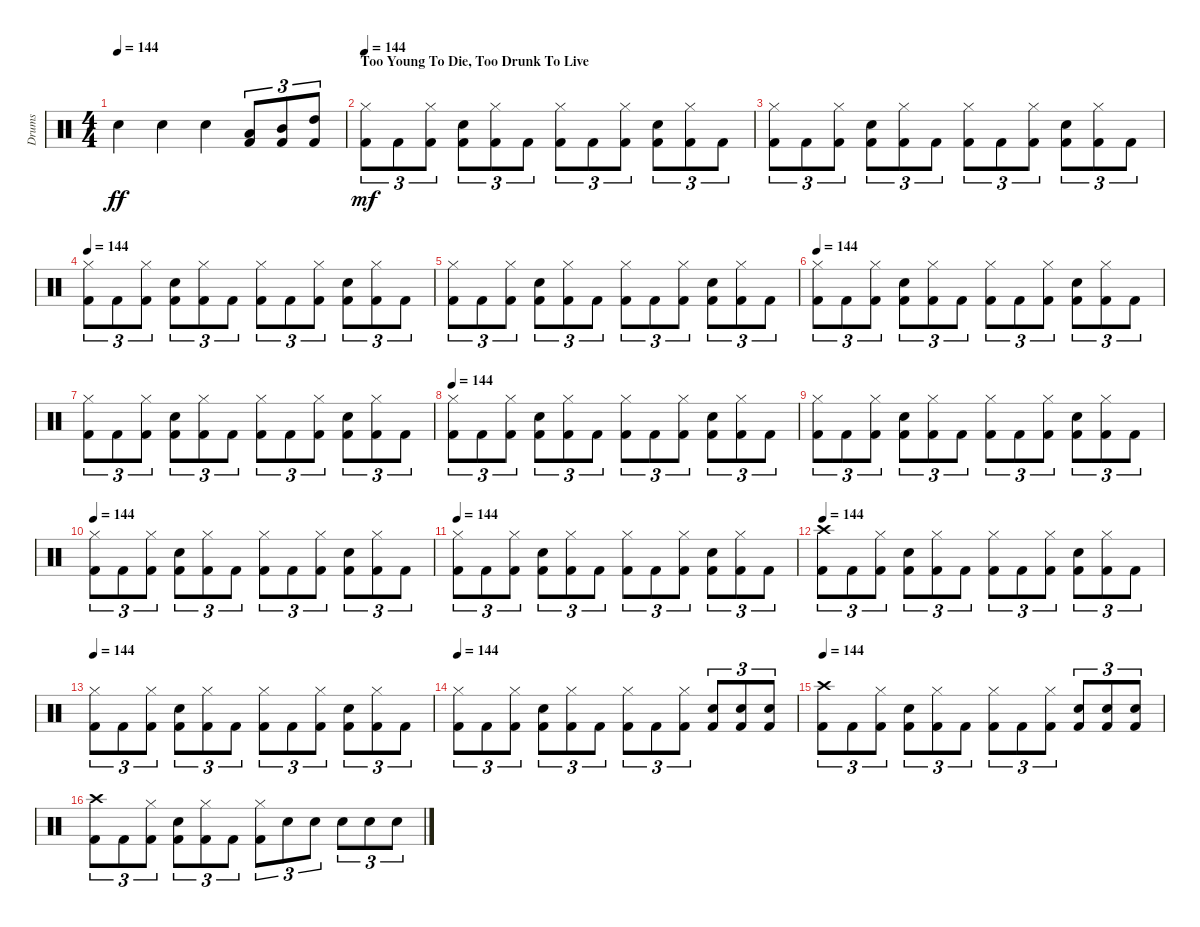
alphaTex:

\track ("Drums" "Drums") {instrument percussion}
\staff {score}
\articulation defaults
\ts (4 4)
\tempo 144
\clef neutral
\ks c "Electric Snare (hit)".4{dy ff} "Electric Snare (hit)".4 "Electric Snare (hit)".4
("Kick (hit) 2" "Low Floor Tom (hit)").8{tu (3 2)} ("Kick (hit) 2" "Mid Tom (hit)").8{tu (3 2)} ("Kick (hit) 2" "High Tom (hit)").8{tu (3 2)} |
\section ("" "Too Young To Die, Too Drunk To Live")
\tempo 144
("Hi-Hat (closed)" "Kick (hit) 2").8{tu (3 2) dy mf} "Kick (hit) 2".8{tu (3 2)} ("Hi-Hat (closed)" "Kick (hit) 2").8{tu (3 2)} ("Snare (hit) 2" "Kick (hit) 2").8{tu (3 2)} ("Hi-Hat (closed)" "Kick (hit) 2").8{tu (3 2)} "Kick (hit) 2".8{tu (3 2)} ("Hi-Hat (closed)" "Kick (hit) 2").8{tu (3 2)} "Kick (hit) 2".8{tu (3 2)} ("Hi-Hat (closed)" "Kick (hit) 2").8{tu (3 2)} ("Snare (hit) 2" "Kick (hit) 2").8{tu (3 2)} ("Hi-Hat (closed)" "Kick (hit) 2").8{tu (3 2)} "Kick (hit) 2".8{tu (3 2)} |
("Hi-Hat (closed)" "Kick (hit) 2").8{tu (3 2)} "Kick (hit) 2".8{tu (3 2)} ("Hi-Hat (closed)" "Kick (hit) 2").8{tu (3 2)} ("Snare (hit) 2" "Kick (hit) 2").8{tu (3 2)} ("Hi-Hat (closed)" "Kick (hit) 2").8{tu (3 2)} "Kick (hit) 2".8{tu (3 2)} ("Hi-Hat (closed)" "Kick (hit) 2").8{tu (3 2)} "Kick (hit) 2".8{tu (3 2)} ("Hi-Hat (closed)" "Kick (hit) 2").8{tu (3 2)} ("Snare (hit) 2" "Kick (hit) 2").8{tu (3 2)} ("Hi-Hat (closed)" "Kick (hit) 2").8{tu (3 2)} "Kick (hit) 2".8{tu (3 2)} |
\tempo 144
("Hi-Hat (closed)" "Kick (hit) 2").8{tu (3 2)} "Kick (hit) 2".8{tu (3 2)} ("Hi-Hat (closed)" "Kick (hit) 2").8{tu (3 2)} ("Snare (hit) 2" "Kick (hit) 2").8{tu (3 2)} ("Hi-Hat (closed)" "Kick (hit) 2").8{tu (3 2)} "Kick (hit) 2".8{tu (3 2)} ("Hi-Hat (closed)" "Kick (hit) 2").8{tu (3 2)} "Kick (hit) 2".8{tu (3 2)} ("Hi-Hat (closed)" "Kick (hit) 2").8{tu (3 2)} ("Snare (hit) 2" "Kick (hit) 2").8{tu (3 2)} ("Hi-Hat (closed)" "Kick (hit) 2").8{tu (3 2)} "Kick (hit) 2".8{tu (3 2)} |
("Hi-Hat (closed)" "Kick (hit) 2").8{tu (3 2)} "Kick (hit) 2".8{tu (3 2)} ("Hi-Hat (closed)" "Kick (hit) 2").8{tu (3 2)} ("Snare (hit) 2" "Kick (hit) 2").8{tu (3 2)} ("Hi-Hat (closed)" "Kick (hit) 2").8{tu (3 2)} "Kick (hit) 2".8{tu (3 2)} ("Hi-Hat (closed)" "Kick (hit) 2").8{tu (3 2)} "Kick (hit) 2".8{tu (3 2)} ("Hi-Hat (closed)" "Kick (hit) 2").8{tu (3 2)} ("Snare (hit) 2" "Kick (hit) 2").8{tu (3 2)} ("Hi-Hat (closed)" "Kick (hit) 2").8{tu (3 2)} "Kick (hit) 2".8{tu (3 2)} |
\tempo 144
("Hi-Hat (closed)" "Kick (hit) 2").8{tu (3 2)} "Kick (hit) 2".8{tu (3 2)} ("Hi-Hat (closed)" "Kick (hit) 2").8{tu (3 2)} ("Snare (hit) 2" "Kick (hit) 2").8{tu (3 2)} ("Hi-Hat (closed)" "Kick (hit) 2").8{tu (3 2)} "Kick (hit) 2".8{tu (3 2)} ("Hi-Hat (closed)" "Kick (hit) 2").8{tu (3 2)} "Kick (hit) 2".8{tu (3 2)} ("Hi-Hat (closed)" "Kick (hit) 2").8{tu (3 2)} ("Snare (hit) 2" "Kick (hit) 2").8{tu (3 2)} ("Hi-Hat (closed)" "Kick (hit) 2").8{tu (3 2)} "Kick (hit) 2".8{tu (3 2)} |
("Hi-Hat (closed)" "Kick (hit) 2").8{tu (3 2)} "Kick (hit) 2".8{tu (3 2)} ("Hi-Hat (closed)" "Kick (hit) 2").8{tu (3 2)} ("Snare (hit) 2" "Kick (hit) 2").8{tu (3 2)} ("Hi-Hat (closed)" "Kick (hit) 2").8{tu (3 2)} "Kick (hit) 2".8{tu (3 2)} ("Hi-Hat (closed)" "Kick (hit) 2").8{tu (3 2)} "Kick (hit) 2".8{tu (3 2)} ("Hi-Hat (closed)" "Kick (hit) 2").8{tu (3 2)} ("Snare (hit) 2" "Kick (hit) 2").8{tu (3 2)} ("Hi-Hat (closed)" "Kick (hit) 2").8{tu (3 2)} "Kick (hit) 2".8{tu (3 2)} |
\tempo 144
("Hi-Hat (closed)" "Kick (hit) 2").8{tu (3 2)} "Kick (hit) 2".8{tu (3 2)} ("Hi-Hat (closed)" "Kick (hit) 2").8{tu (3 2)} ("Snare (hit) 2" "Kick (hit) 2").8{tu (3 2)} ("Hi-Hat (closed)" "Kick (hit) 2").8{tu (3 2)} "Kick (hit) 2".8{tu (3 2)} ("Hi-Hat (closed)" "Kick (hit) 2").8{tu (3 2)} "Kick (hit) 2".8{tu (3 2)} ("Hi-Hat (closed)" "Kick (hit) 2").8{tu (3 2)} ("Snare (hit) 2" "Kick (hit) 2").8{tu (3 2)} ("Hi-Hat (closed)" "Kick (hit) 2").8{tu (3 2)} "Kick (hit) 2".8{tu (3 2)} |
("Hi-Hat (closed)" "Kick (hit) 2").8{tu (3 2)} "Kick (hit) 2".8{tu (3 2)} ("Hi-Hat (closed)" "Kick (hit) 2").8{tu (3 2)} ("Snare (hit) 2" "Kick (hit) 2").8{tu (3 2)} ("Hi-Hat (closed)" "Kick (hit) 2").8{tu (3 2)} "Kick (hit) 2".8{tu (3 2)} ("Hi-Hat (closed)" "Kick (hit) 2").8{tu (3 2)} "Kick (hit) 2".8{tu (3 2)} ("Hi-Hat (closed)" "Kick (hit) 2").8{tu (3 2)} ("Snare (hit) 2" "Kick (hit) 2").8{tu (3 2)} ("Hi-Hat (closed)" "Kick (hit) 2").8{tu (3 2)} "Kick (hit) 2".8{tu (3 2)} |
\tempo 144
("Hi-Hat (closed)" "Kick (hit) 2").8{tu (3 2)} "Kick (hit) 2".8{tu (3 2)} ("Hi-Hat (closed)" "Kick (hit) 2").8{tu (3 2)} ("Snare (hit) 2" "Kick (hit) 2").8{tu (3 2)} ("Hi-Hat (closed)" "Kick (hit) 2").8{tu (3 2)} "Kick (hit) 2".8{tu (3 2)} ("Hi-Hat (closed)" "Kick (hit) 2").8{tu (3 2)} "Kick (hit) 2".8{tu (3 2)} ("Hi-Hat (closed)" "Kick (hit) 2").8{tu (3 2)} ("Snare (hit) 2" "Kick (hit) 2").8{tu (3 2)} ("Hi-Hat (closed)" "Kick (hit) 2").8{tu (3 2)} "Kick (hit) 2".8{tu (3 2)} |
\tempo 144
("Hi-Hat (closed)" "Kick (hit) 2").8{tu (3 2)} "Kick (hit) 2".8{tu (3 2)} ("Hi-Hat (closed)" "Kick (hit) 2").8{tu (3 2)} ("Snare (hit) 2" "Kick (hit) 2").8{tu (3 2)} ("Hi-Hat (closed)" "Kick (hit) 2").8{tu (3 2)} "Kick (hit) 2".8{tu (3 2)} ("Hi-Hat (closed)" "Kick (hit) 2").8{tu (3 2)} "Kick (hit) 2".8{tu (3 2)} ("Hi-Hat (closed)" "Kick (hit) 2").8{tu (3 2)} ("Snare (hit) 2" "Kick (hit) 2").8{tu (3 2)} ("Hi-Hat (closed)" "Kick (hit) 2").8{tu (3 2)} "Kick (hit) 2".8{tu (3 2)} |
\tempo 144
("Kick (hit) 2" "Crash high (hit)").8{tu (3 2)} "Kick (hit) 2".8{tu (3 2)} ("Hi-Hat (closed)" "Kick (hit) 2").8{tu (3 2)} ("Snare (hit) 2" "Kick (hit) 2").8{tu (3 2)} ("Hi-Hat (closed)" "Kick (hit) 2").8{tu (3 2)} "Kick (hit) 2".8{tu (3 2)} ("Hi-Hat (closed)" "Kick (hit) 2").8{tu (3 2)} "Kick (hit) 2".8{tu (3 2)} ("Hi-Hat (closed)" "Kick (hit) 2").8{tu (3 2)} ("Snare (hit) 2" "Kick (hit) 2").8{tu (3 2)} ("Hi-Hat (closed)" "Kick (hit) 2").8{tu (3 2)} "Kick (hit) 2".8{tu (3 2)} |
\tempo 144
("Hi-Hat (closed)" "Kick (hit) 2").8{tu (3 2)} "Kick (hit) 2".8{tu (3 2)} ("Hi-Hat (closed)" "Kick (hit) 2").8{tu (3 2)} ("Snare (hit) 2" "Kick (hit) 2").8{tu (3 2)} ("Hi-Hat (closed)" "Kick (hit) 2").8{tu (3 2)} "Kick (hit) 2".8{tu (3 2)} ("Hi-Hat (closed)" "Kick (hit) 2").8{tu (3 2)} "Kick (hit) 2".8{tu (3 2)} ("Hi-Hat (closed)" "Kick (hit) 2").8{tu (3 2)} ("Snare (hit) 2" "Kick (hit) 2").8{tu (3 2)} ("Hi-Hat (closed)" "Kick (hit) 2").8{tu (3 2)} "Kick (hit) 2".8{tu (3 2)} |
\tempo 144
("Hi-Hat (closed)" "Kick (hit) 2").8{tu (3 2)} "Kick (hit) 2".8{tu (3 2)} ("Hi-Hat (closed)" "Kick (hit) 2").8{tu (3 2)} ("Snare (hit) 2" "Kick (hit) 2").8{tu (3 2)} ("Hi-Hat (closed)" "Kick (hit) 2").8{tu (3 2)} "Kick (hit) 2".8{tu (3 2)} ("Hi-Hat (closed)" "Kick (hit) 2").8{tu (3 2)} "Kick (hit) 2".8{tu (3 2)} ("Hi-Hat (closed)" "Kick (hit) 2").8{tu (3 2)} ("Kick (hit) 2" "Electric Snare (hit)").8{tu (3 2)} ("Kick (hit) 2" "Electric Snare (hit)").8{tu (3 2)} ("Kick (hit) 2" "Electric Snare (hit)").8{tu (3 2)} |
\tempo 144
("Kick (hit) 2" "Crash high (hit)").8{tu (3 2)} "Kick (hit) 2".8{tu (3 2)} ("Hi-Hat (closed)" "Kick (hit) 2").8{tu (3 2)} ("Snare (hit) 2" "Kick (hit) 2").8{tu (3 2)} ("Hi-Hat (closed)" "Kick (hit) 2").8{tu (3 2)} "Kick (hit) 2".8{tu (3 2)} ("Hi-Hat (closed)" "Kick (hit) 2").8{tu (3 2)} "Kick (hit) 2".8{tu (3 2)} ("Hi-Hat (closed)" "Kick (hit) 2").8{tu (3 2)} ("Kick (hit) 2" "Electric Snare (hit)").8{tu (3 2)} ("Kick (hit) 2" "Electric Snare (hit)").8{tu (3 2)} ("Kick (hit) 2" "Electric Snare (hit)").8{tu (3 2)} |
("Crash high (hit)" "Kick (hit) 2").8{tu (3 2)} "Kick (hit) 2".8{tu (3 2)} ("Hi-Hat (closed)" "Kick (hit) 2").8{tu (3 2)} ("Snare (hit) 2" "Kick (hit) 2").8{tu (3 2)} ("Hi-Hat (closed)" "Kick (hit) 2").8{tu (3 2)} "Kick (hit) 2".8{tu (3 2)} ("Hi-Hat (closed)" "Kick (hit) 2").8{tu (3 2)} "Electric Snare (hit)".8{tu (3 2)} "Electric Snare (hit)".8{tu (3 2)} "Electric Snare (hit)".8{tu (3 2)} "Electric Snare (hit)".8{tu (3 2)} "Electric Snare (hit)".8{tu (3 2)}
